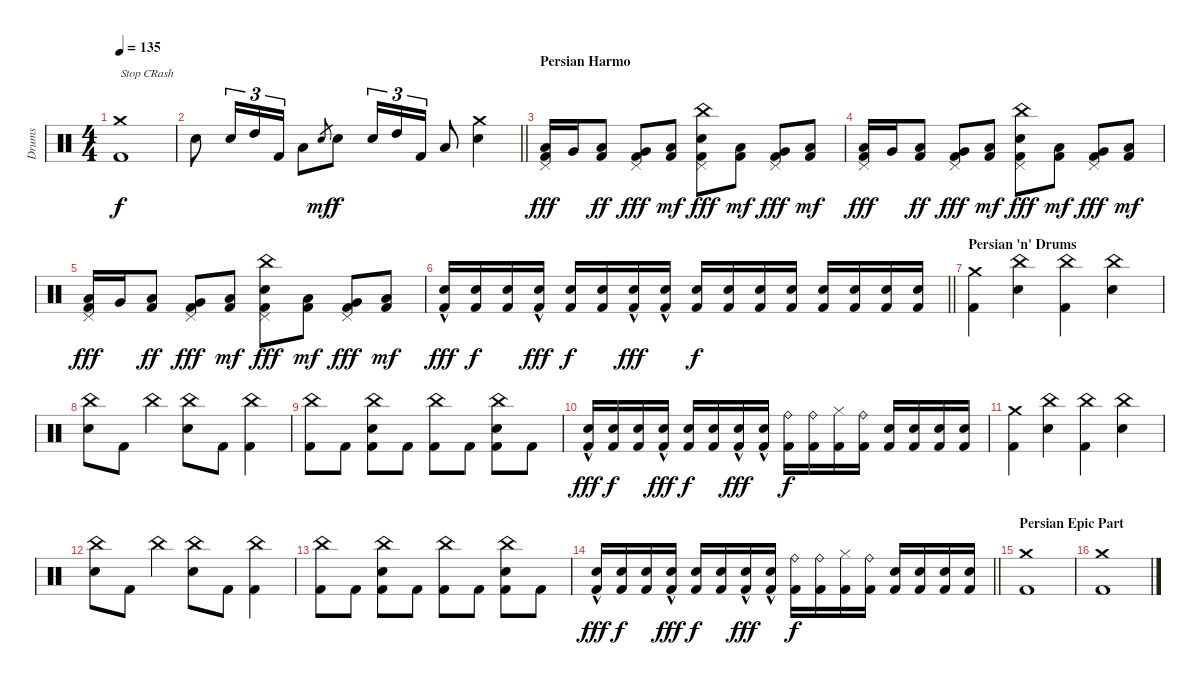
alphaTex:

\track ("Drums" "Drums") {instrument percussion}
\staff {score}
\articulation defaults
\ts (4 4)
\tempo 135
\clef neutral
\ks c
("Crash medium (hit)" "Kick (hit) 2").1{txt "Stop CRash" dy f} |
\barLineRight lightlight "Snare (hit) 2".8 "Snare (hit) 2".16{tu (3 2)} "High Tom (hit)".16{tu (3 2)} "Kick (hit) 2".16{tu (3 2)} "Low Floor Tom (hit)".8 "Snare (hit) 2".8{gr dy mf} "Snare (hit) 2".8{dy f} "Snare (hit) 2".16{tu (3 2)} "High Tom (hit)".16{tu (3 2)} "Kick (hit) 2".16{tu (3 2)} "Low Floor Tom (hit)".8
("Crash medium (hit)" "Snare (hit) 2").4 |
\section ("" "Persian Harmo")
("Kick (hit) 2" "Low Floor Tom (hit)" "Pedal Hi-Hat (hit)").16{dy fff} "Very Low Tom (hit)".16 ("Kick (hit) 2" "Low Floor Tom (hit)").8{dy ff} ("Kick (hit) 2" "Very Low Tom (hit)" "Pedal Hi-Hat (hit)").8{dy fff} ("Kick (hit) 2" "Low Floor Tom (hit)").8{dy mf} ("Kick (hit) 2" "Snare (hit) 2" "Pedal Hi-Hat (hit)" "China (hit)").8{dy fff} ("Kick (hit) 2" "Low Floor Tom (hit)").8{dy mf} ("Kick (hit) 2" "Very Low Tom (hit)" "Pedal Hi-Hat (hit)").8{dy fff} ("Kick (hit) 2" "Low Floor Tom (hit)").8{dy mf} |
("Kick (hit) 2" "Low Floor Tom (hit)" "Pedal Hi-Hat (hit)").16{dy fff} "Very Low Tom (hit)".16 ("Kick (hit) 2" "Low Floor Tom (hit)").8{dy ff} ("Kick (hit) 2" "Very Low Tom (hit)" "Pedal Hi-Hat (hit)").8{dy fff} ("Kick (hit) 2" "Low Floor Tom (hit)").8{dy mf} ("Kick (hit) 2" "Snare (hit) 2" "Pedal Hi-Hat (hit)" "China (hit)").8{dy fff} ("Kick (hit) 2" "Low Floor Tom (hit)").8{dy mf} ("Kick (hit) 2" "Very Low Tom (hit)" "Pedal Hi-Hat (hit)").8{dy fff} ("Kick (hit) 2" "Low Floor Tom (hit)").8{dy mf} |
("Kick (hit) 2" "Low Floor Tom (hit)" "Pedal Hi-Hat (hit)").16{dy fff} "Very Low Tom (hit)".16 ("Kick (hit) 2" "Low Floor Tom (hit)").8{dy ff} ("Kick (hit) 2" "Very Low Tom (hit)" "Pedal Hi-Hat (hit)").8{dy fff} ("Kick (hit) 2" "Low Floor Tom (hit)").8{dy mf} ("Kick (hit) 2" "Snare (hit) 2" "Pedal Hi-Hat (hit)" "China (hit)").8{dy fff} ("Kick (hit) 2" "Low Floor Tom (hit)").8{dy mf} ("Kick (hit) 2" "Very Low Tom (hit)" "Pedal Hi-Hat (hit)").8{dy fff} ("Kick (hit) 2" "Low Floor Tom (hit)").8{dy mf} |
\barLineRight lightlight
("Snare (hit) 2"{hac} "Kick (hit) 2").16{dy fff} ("Snare (hit) 2" "Kick (hit) 2").16{dy f} ("Snare (hit) 2" "Kick (hit) 2").16 ("Snare (hit) 2"{hac} "Kick (hit) 2").16{dy fff} ("Snare (hit) 2" "Kick (hit) 2").16{dy f} ("Snare (hit) 2" "Kick (hit) 2").16 ("Snare (hit) 2"{hac} "Kick (hit) 2").16{dy fff} ("Snare (hit) 2"{hac} "Kick (hit) 2").16 ("Snare (hit) 2" "Kick (hit) 2").16{dy f} ("Snare (hit) 2" "Kick (hit) 2").16 ("Snare (hit) 2" "Kick (hit) 2").16 ("Snare (hit) 2" "Kick (hit) 2").16 ("Snare (hit) 2" "Kick (hit) 2").16 ("Snare (hit) 2" "Kick (hit) 2").16 ("Snare (hit) 2" "Kick (hit) 2").16 ("Snare (hit) 2" "Kick (hit) 2").16 |
\section ("" "Persian 'n' Drums")
("Crash medium (hit)" "Kick (hit) 2").4 ("China (hit)" "Snare (hit) 2").4 ("China (hit)" "Kick (hit) 2").4 ("China (hit)" "Snare (hit) 2").4 |
("China (hit)" "Snare (hit) 2").8 "Kick (hit) 2".8 "China (hit)".4 ("China (hit)" "Snare (hit) 2").8 "Kick (hit) 2".8 ("China (hit)" "Kick (hit) 2").4 |
("China (hit)" "Kick (hit) 2").8 "Kick (hit) 2".8 ("China (hit)" "Snare (hit) 2" "Kick (hit) 2").8 "Kick (hit) 2".8 ("China (hit)" "Kick (hit) 2").8 "Kick (hit) 2".8 ("China (hit)" "Snare (hit) 2" "Kick (hit) 2").8 "Kick (hit) 2".8 |
("Snare (hit) 2"{hac} "Kick (hit) 2").16{dy fff} ("Snare (hit) 2" "Kick (hit) 2").16{dy f} ("Snare (hit) 2" "Kick (hit) 2").16 ("Snare (hit) 2"{hac} "Kick (hit) 2").16{dy fff} ("Snare (hit) 2" "Kick (hit) 2").16{dy f} ("Snare (hit) 2" "Kick (hit) 2").16 ("Snare (hit) 2"{hac} "Kick (hit) 2").16{dy fff} ("Snare (hit) 2"{hac} "Kick (hit) 2").16 ("Ride (bell)" "Kick (hit) 2").16{dy f} ("Ride (bell)" "Kick (hit) 2").16 ("Hi-Hat (closed)" "Kick (hit) 2").16 ("Ride (bell)" "Kick (hit) 2").16 ("Snare (hit) 2" "Kick (hit) 2").16 ("Snare (hit) 2" "Kick (hit) 2").16 ("Snare (hit) 2" "Kick (hit) 2").16 ("Snare (hit) 2" "Kick (hit) 2").16 |
("Crash medium (hit)" "Kick (hit) 2").4 ("China (hit)" "Snare (hit) 2").4 ("China (hit)" "Kick (hit) 2").4 ("China (hit)" "Snare (hit) 2").4 |
("China (hit)" "Snare (hit) 2").8 "Kick (hit) 2".8 "China (hit)".4 ("China (hit)" "Snare (hit) 2").8 "Kick (hit) 2".8 ("China (hit)" "Kick (hit) 2").4 |
("China (hit)" "Kick (hit) 2").8 "Kick (hit) 2".8 ("China (hit)" "Snare (hit) 2" "Kick (hit) 2").8 "Kick (hit) 2".8 ("China (hit)" "Kick (hit) 2").8 "Kick (hit) 2".8 ("China (hit)" "Snare (hit) 2" "Kick (hit) 2").8 "Kick (hit) 2".8 |
\barLineRight lightlight
("Snare (hit) 2"{hac} "Kick (hit) 2").16{dy fff} ("Snare (hit) 2" "Kick (hit) 2").16{dy f} ("Snare (hit) 2" "Kick (hit) 2").16 ("Snare (hit) 2"{hac} "Kick (hit) 2").16{dy fff} ("Snare (hit) 2" "Kick (hit) 2").16{dy f} ("Snare (hit) 2" "Kick (hit) 2").16 ("Snare (hit) 2"{hac} "Kick (hit) 2").16{dy fff} ("Snare (hit) 2"{hac} "Kick (hit) 2").16 ("Ride (bell)" "Kick (hit) 2").16{dy f} ("Ride (bell)" "Kick (hit) 2").16 ("Hi-Hat (closed)" "Kick (hit) 2").16 ("Ride (bell)" "Kick (hit) 2").16 ("Snare (hit) 2" "Kick (hit) 2").16 ("Snare (hit) 2" "Kick (hit) 2").16 ("Snare (hit) 2" "Kick (hit) 2").16 ("Snare (hit) 2" "Kick (hit) 2").16 |
\section ("" "Persian Epic Part")
("Crash medium (hit)" "Kick (hit) 2").1 |
("Crash medium (hit)" "Kick (hit) 2").1
